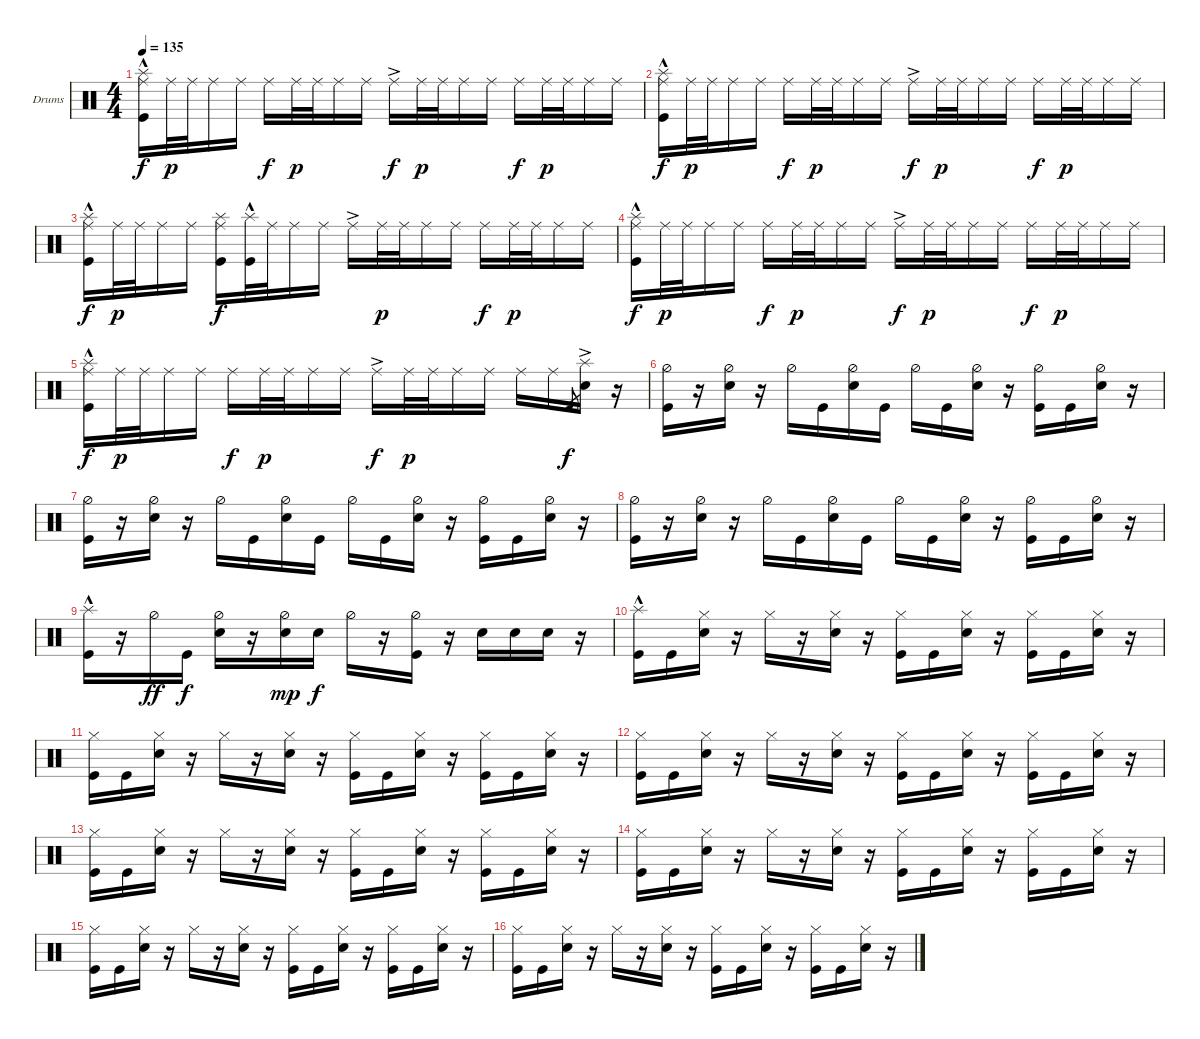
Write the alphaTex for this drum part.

\defaultSystemsLayout 4
\bracketExtendMode groupsimilarinstruments
\firstSystemTrackNameOrientation horizontal
\otherSystemsTrackNameOrientation horizontal
\track ("Drumkit" "Drums") {instrument percussion}
\staff {score}
\articulation defaults
\ts (4 4)
\tempo 135
\clef neutral
\ks c
("Ride (middle)" "Kick (hit)" "Splash (hit)"{hac}).16{dy f} "Ride (middle)".32{dy p} "Ride (middle)".32 "Ride (middle)".16 "Ride (middle)".16 "Ride (middle)".16{dy f} "Ride (middle)".32{dy p} "Ride (middle)".32 "Ride (middle)".16 "Ride (middle)".16 "Ride (middle)"{ac}.16{dy f} "Ride (middle)".32{dy p} "Ride (middle)".32 "Ride (middle)".16 "Ride (middle)".16 "Ride (middle)".16{dy f} "Ride (middle)".32{dy p} "Ride (middle)".32 "Ride (middle)".16 "Ride (middle)".16 |
("Ride (middle)" "Kick (hit)" "Splash (hit)"{hac}).16{dy f} "Ride (middle)".32{dy p} "Ride (middle)".32 "Ride (middle)".16 "Ride (middle)".16 "Ride (middle)".16{dy f} "Ride (middle)".32{dy p} "Ride (middle)".32 "Ride (middle)".16 "Ride (middle)".16 "Ride (middle)"{ac}.16{dy f} "Ride (middle)".32{dy p} "Ride (middle)".32 "Ride (middle)".16 "Ride (middle)".16 "Ride (middle)".16{dy f} "Ride (middle)".32{dy p} "Ride (middle)".32 "Ride (middle)".16 "Ride (middle)".16 |
("Ride (middle)" "Kick (hit)" "Splash (hit)"{hac}).16{dy f} "Ride (middle)".32{dy p} "Ride (middle)".32 "Ride (middle)".16 "Ride (middle)".16 ("Ride (middle)" "Kick (hit)" "Splash (hit)").16{dy f} ("Kick (hit)"{hac} "Splash (hit)"{hac}).32 "Ride (middle)".32 "Ride (middle)".16 "Ride (middle)".16 "Ride (middle)"{ac}.16 "Ride (middle)".32{dy p} "Ride (middle)".32 "Ride (middle)".16 "Ride (middle)".16 "Ride (middle)".16{dy f} "Ride (middle)".32{dy p} "Ride (middle)".32 "Ride (middle)".16 "Ride (middle)".16 |
("Ride (middle)" "Kick (hit)" "Splash (hit)"{hac}).16{dy f} "Ride (middle)".32{dy p} "Ride (middle)".32 "Ride (middle)".16 "Ride (middle)".16 "Ride (middle)".16{dy f} "Ride (middle)".32{dy p} "Ride (middle)".32 "Ride (middle)".16 "Ride (middle)".16 "Ride (middle)"{ac}.16{dy f} "Ride (middle)".32{dy p} "Ride (middle)".32 "Ride (middle)".16 "Ride (middle)".16 "Ride (middle)".16{dy f} "Ride (middle)".32{dy p} "Ride (middle)".32 "Ride (middle)".16 "Ride (middle)".16 |
("Ride (middle)" "Kick (hit)" "Splash (hit)"{hac}).16{dy f} "Ride (middle)".32{dy p} "Ride (middle)".32 "Ride (middle)".16 "Ride (middle)".16 "Ride (middle)".16{dy f} "Ride (middle)".32{dy p} "Ride (middle)".32 "Ride (middle)".16 "Ride (middle)".16 "Ride (middle)"{ac}.16{dy f} "Ride (middle)".32{dy p} "Ride (middle)".32 "Ride (middle)".16 "Ride (middle)".16 "Ride (middle)".16 "Ride (middle)".16 "Kick (hit)".8{gr dy f} ("Snare (hit) 2" "Splash (hit)"{ac}).16 r.16 |
("Kick (hit)" "Hi-Hat (half)").16 r.16 ("Snare (hit) 2" "Hi-Hat (half)").16 r.16 "Hi-Hat (half)".16 "Kick (hit)".16 ("Snare (hit) 2" "Hi-Hat (half)").16 "Kick (hit)".16 "Hi-Hat (half)".16 "Kick (hit)".16 ("Snare (hit) 2" "Hi-Hat (half)").16 r.16 ("Kick (hit)" "Hi-Hat (half)").16 "Kick (hit)".16 ("Snare (hit) 2" "Hi-Hat (half)").16 r.16 |
("Kick (hit)" "Hi-Hat (half)").16 r.16 ("Snare (hit) 2" "Hi-Hat (half)").16 r.16 "Hi-Hat (half)".16 "Kick (hit)".16 ("Snare (hit) 2" "Hi-Hat (half)").16 "Kick (hit)".16 "Hi-Hat (half)".16 "Kick (hit)".16 ("Snare (hit) 2" "Hi-Hat (half)").16 r.16 ("Kick (hit)" "Hi-Hat (half)").16 "Kick (hit)".16 ("Snare (hit) 2" "Hi-Hat (half)").16 r.16 |
("Kick (hit)" "Hi-Hat (half)").16 r.16 ("Snare (hit) 2" "Hi-Hat (half)").16 r.16 "Hi-Hat (half)".16 "Kick (hit)".16 ("Snare (hit) 2" "Hi-Hat (half)").16 "Kick (hit)".16 "Hi-Hat (half)".16 "Kick (hit)".16 ("Snare (hit) 2" "Hi-Hat (half)").16 r.16 ("Kick (hit)" "Hi-Hat (half)").16 "Kick (hit)".16 ("Snare (hit) 2" "Hi-Hat (half)").16 r.16 |
("Kick (hit)" "Splash (hit)"{hac}).16 r.16 "Hi-Hat (half)".16{dy ff} "Kick (hit)".16{dy f} ("Snare (hit) 2" "Hi-Hat (half)").16 r.16 ("Snare (hit) 2" "Hi-Hat (half)").16{dy mp} "Snare (hit) 2".16{dy f} "Hi-Hat (half)".16 r.16 ("Kick (hit)" "Hi-Hat (half)").16 r.16 "Snare (hit) 2".16 "Snare (hit) 2".16 "Snare (hit) 2".16 r.16 |
("Kick (hit)" "Splash (hit)"{hac}).16 "Kick (hit)".16 ("Snare (hit) 2" "Hi-Hat (closed)").16 r.16 "Hi-Hat (closed)".16 r.16 ("Snare (hit) 2" "Hi-Hat (closed)").16 r.16 ("Hi-Hat (closed)" "Kick (hit)").16 "Kick (hit)".16 ("Snare (hit) 2" "Hi-Hat (closed)").16 r.16 ("Hi-Hat (closed)" "Kick (hit)").16 "Kick (hit)".16 ("Snare (hit) 2" "Hi-Hat (closed)").16 r.16 |
("Kick (hit)" "Hi-Hat (closed)").16 "Kick (hit)".16 ("Snare (hit) 2" "Hi-Hat (closed)").16 r.16 "Hi-Hat (closed)".16 r.16 ("Snare (hit) 2" "Hi-Hat (closed)").16 r.16 ("Hi-Hat (closed)" "Kick (hit)").16 "Kick (hit)".16 ("Snare (hit) 2" "Hi-Hat (closed)").16 r.16 ("Hi-Hat (closed)" "Kick (hit)").16 "Kick (hit)".16 ("Snare (hit) 2" "Hi-Hat (closed)").16 r.16 |
("Kick (hit)" "Hi-Hat (closed)").16 "Kick (hit)".16 ("Snare (hit) 2" "Hi-Hat (closed)").16 r.16 "Hi-Hat (closed)".16 r.16 ("Snare (hit) 2" "Hi-Hat (closed)").16 r.16 ("Hi-Hat (closed)" "Kick (hit)").16 "Kick (hit)".16 ("Snare (hit) 2" "Hi-Hat (closed)").16 r.16 ("Hi-Hat (closed)" "Kick (hit)").16 "Kick (hit)".16 ("Snare (hit) 2" "Hi-Hat (closed)").16 r.16 |
("Kick (hit)" "Hi-Hat (closed)").16 "Kick (hit)".16 ("Snare (hit) 2" "Hi-Hat (closed)").16 r.16 "Hi-Hat (closed)".16 r.16 ("Snare (hit) 2" "Hi-Hat (closed)").16 r.16 ("Hi-Hat (closed)" "Kick (hit)").16 "Kick (hit)".16 ("Snare (hit) 2" "Hi-Hat (closed)").16 r.16 ("Hi-Hat (closed)" "Kick (hit)").16 "Kick (hit)".16 ("Snare (hit) 2" "Hi-Hat (closed)").16 r.16 |
("Kick (hit)" "Hi-Hat (closed)").16 "Kick (hit)".16 ("Snare (hit) 2" "Hi-Hat (closed)").16 r.16 "Hi-Hat (closed)".16 r.16 ("Snare (hit) 2" "Hi-Hat (closed)").16 r.16 ("Hi-Hat (closed)" "Kick (hit)").16 "Kick (hit)".16 ("Snare (hit) 2" "Hi-Hat (closed)").16 r.16 ("Hi-Hat (closed)" "Kick (hit)").16 "Kick (hit)".16 ("Snare (hit) 2" "Hi-Hat (closed)").16 r.16 |
("Kick (hit)" "Hi-Hat (closed)").16 "Kick (hit)".16 ("Snare (hit) 2" "Hi-Hat (closed)").16 r.16 "Hi-Hat (closed)".16 r.16 ("Snare (hit) 2" "Hi-Hat (closed)").16 r.16 ("Hi-Hat (closed)" "Kick (hit)").16 "Kick (hit)".16 ("Snare (hit) 2" "Hi-Hat (closed)").16 r.16 ("Hi-Hat (closed)" "Kick (hit)").16 "Kick (hit)".16 ("Snare (hit) 2" "Hi-Hat (closed)").16 r.16 |
("Kick (hit)" "Hi-Hat (closed)").16 "Kick (hit)".16 ("Snare (hit) 2" "Hi-Hat (closed)").16 r.16 "Hi-Hat (closed)".16 r.16 ("Snare (hit) 2" "Hi-Hat (closed)").16 r.16 ("Hi-Hat (closed)" "Kick (hit)").16 "Kick (hit)".16 ("Snare (hit) 2" "Hi-Hat (closed)").16 r.16 ("Hi-Hat (closed)" "Kick (hit)").16 "Kick (hit)".16 ("Snare (hit) 2" "Hi-Hat (closed)").16 r.16
